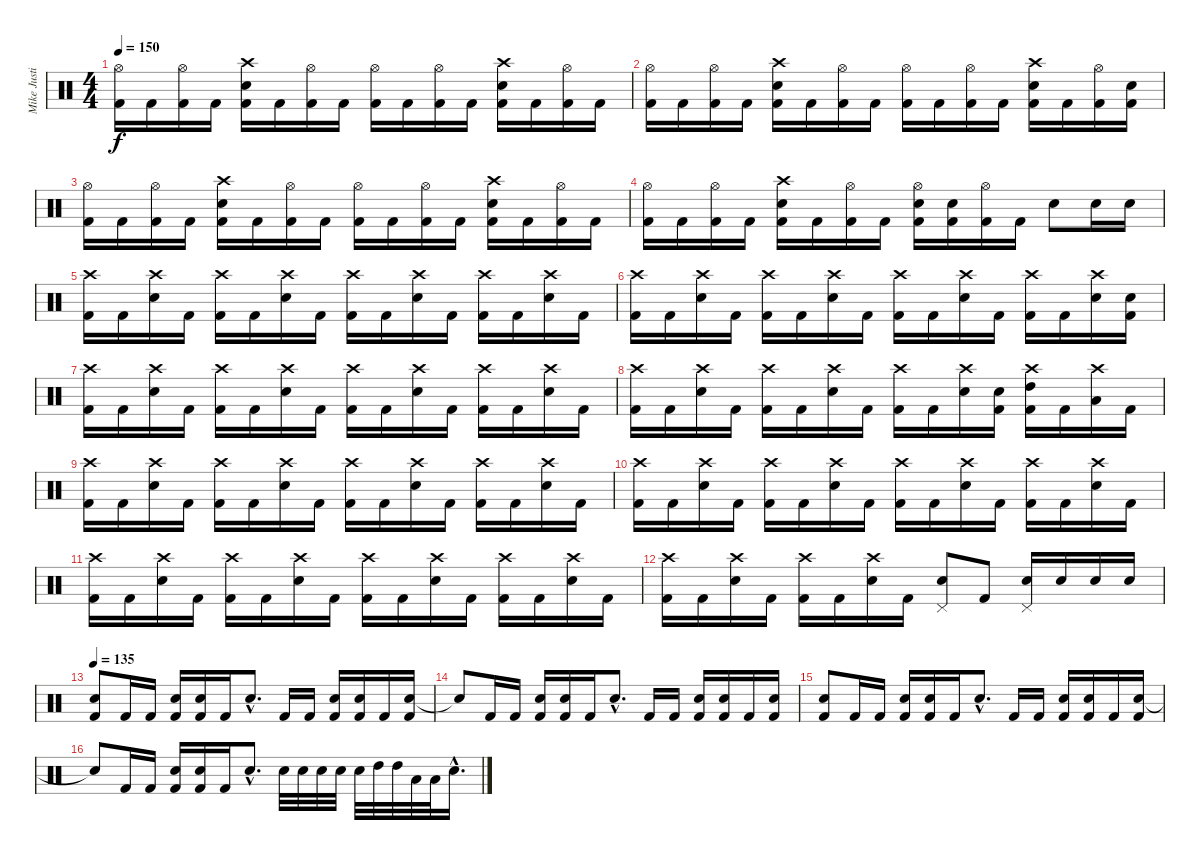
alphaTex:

\track ("Mike Justian" "Mike Justi") {instrument percussion}
\staff {score}
\articulation defaults
\ts (4 4)
\tempo 150
\clef neutral
\ks c
("Hi-Hat (open)" "Kick (hit) 2").16{dy f} "Kick (hit) 2".16 ("Hi-Hat (open)" "Kick (hit) 2").16 "Kick (hit) 2".16 ("Crash high (hit)" "Electric Snare (hit)" "Kick (hit) 2").16 "Kick (hit) 2".16 ("Hi-Hat (open)" "Kick (hit) 2").16 "Kick (hit) 2".16 ("Hi-Hat (open)" "Kick (hit) 2").16 "Kick (hit) 2".16 ("Hi-Hat (open)" "Kick (hit) 2").16 "Kick (hit) 2".16 ("Crash high (hit)" "Electric Snare (hit)" "Kick (hit) 2").16 "Kick (hit) 2".16 ("Hi-Hat (open)" "Kick (hit) 2").16 "Kick (hit) 2".16 |
("Hi-Hat (open)" "Kick (hit) 2").16 "Kick (hit) 2".16 ("Hi-Hat (open)" "Kick (hit) 2").16 "Kick (hit) 2".16 ("Crash high (hit)" "Electric Snare (hit)" "Kick (hit) 2").16 "Kick (hit) 2".16 ("Hi-Hat (open)" "Kick (hit) 2").16 "Kick (hit) 2".16 ("Hi-Hat (open)" "Kick (hit) 2").16 "Kick (hit) 2".16 ("Hi-Hat (open)" "Kick (hit) 2").16 "Kick (hit) 2".16 ("Crash high (hit)" "Electric Snare (hit)" "Kick (hit) 2").16 "Kick (hit) 2".16 ("Hi-Hat (open)" "Kick (hit) 2").16 ("Electric Snare (hit)" "Kick (hit) 2").16 |
("Hi-Hat (open)" "Kick (hit) 2").16 "Kick (hit) 2".16 ("Hi-Hat (open)" "Kick (hit) 2").16 "Kick (hit) 2".16 ("Crash high (hit)" "Electric Snare (hit)" "Kick (hit) 2").16 "Kick (hit) 2".16 ("Hi-Hat (open)" "Kick (hit) 2").16 "Kick (hit) 2".16 ("Hi-Hat (open)" "Kick (hit) 2").16 "Kick (hit) 2".16 ("Hi-Hat (open)" "Kick (hit) 2").16 "Kick (hit) 2".16 ("Crash high (hit)" "Electric Snare (hit)" "Kick (hit) 2").16 "Kick (hit) 2".16 ("Hi-Hat (open)" "Kick (hit) 2").16 "Kick (hit) 2".16 |
("Hi-Hat (open)" "Kick (hit) 2").16 "Kick (hit) 2".16 ("Hi-Hat (open)" "Kick (hit) 2").16 "Kick (hit) 2".16 ("Crash high (hit)" "Electric Snare (hit)" "Kick (hit) 2").16 "Kick (hit) 2".16 ("Hi-Hat (open)" "Kick (hit) 2").16 "Kick (hit) 2".16 ("Hi-Hat (open)" "Electric Snare (hit)" "Kick (hit) 2").16 ("Electric Snare (hit)" "Kick (hit) 2").16 ("Hi-Hat (open)" "Kick (hit) 2").16 "Kick (hit) 2".16 "Electric Snare (hit)".8 "Electric Snare (hit)".16 "Electric Snare (hit)".16 |
("Crash high (hit)" "Kick (hit) 2").16 "Kick (hit) 2".16 ("Crash high (hit)" "Electric Snare (hit)").16 "Kick (hit) 2".16 ("Crash high (hit)" "Kick (hit) 2").16 "Kick (hit) 2".16 ("Crash high (hit)" "Electric Snare (hit)").16 "Kick (hit) 2".16 ("Crash high (hit)" "Kick (hit) 2").16 "Kick (hit) 2".16 ("Crash high (hit)" "Electric Snare (hit)").16 "Kick (hit) 2".16 ("Crash high (hit)" "Kick (hit) 2").16 "Kick (hit) 2".16 ("Crash high (hit)" "Electric Snare (hit)").16 "Kick (hit) 2".16 |
("Crash high (hit)" "Kick (hit) 2").16 "Kick (hit) 2".16 ("Crash high (hit)" "Electric Snare (hit)").16 "Kick (hit) 2".16 ("Crash high (hit)" "Kick (hit) 2").16 "Kick (hit) 2".16 ("Crash high (hit)" "Electric Snare (hit)").16 "Kick (hit) 2".16 ("Crash high (hit)" "Kick (hit) 2").16 "Kick (hit) 2".16 ("Crash high (hit)" "Electric Snare (hit)").16 "Kick (hit) 2".16 ("Crash high (hit)" "Kick (hit) 2").16 "Kick (hit) 2".16 ("Crash high (hit)" "Electric Snare (hit)").16 ("Electric Snare (hit)" "Kick (hit) 2").16 |
("Crash high (hit)" "Kick (hit) 2").16 "Kick (hit) 2".16 ("Crash high (hit)" "Electric Snare (hit)").16 "Kick (hit) 2".16 ("Crash high (hit)" "Kick (hit) 2").16 "Kick (hit) 2".16 ("Crash high (hit)" "Electric Snare (hit)").16 "Kick (hit) 2".16 ("Crash high (hit)" "Kick (hit) 2").16 "Kick (hit) 2".16 ("Crash high (hit)" "Electric Snare (hit)").16 "Kick (hit) 2".16 ("Crash high (hit)" "Kick (hit) 2").16 "Kick (hit) 2".16 ("Crash high (hit)" "Electric Snare (hit)").16 "Kick (hit) 2".16 |
("Crash high (hit)" "Kick (hit) 2").16 "Kick (hit) 2".16 ("Crash high (hit)" "Electric Snare (hit)").16 "Kick (hit) 2".16 ("Crash high (hit)" "Kick (hit) 2").16 "Kick (hit) 2".16 ("Crash high (hit)" "Electric Snare (hit)").16 "Kick (hit) 2".16 ("Crash high (hit)" "Kick (hit) 2").16 "Kick (hit) 2".16 ("Crash high (hit)" "Electric Snare (hit)").16 ("Electric Snare (hit)" "Kick (hit) 2").16 ("Crash high (hit)" "High Tom (hit)" "Kick (hit) 2").16 "Kick (hit) 2".16 ("Crash high (hit)" "Low Tom (hit)").16 "Kick (hit) 2".16 |
("Crash high (hit)" "Kick (hit) 2").16 "Kick (hit) 2".16 ("Crash high (hit)" "Electric Snare (hit)").16 "Kick (hit) 2".16 ("Crash high (hit)" "Kick (hit) 2").16 "Kick (hit) 2".16 ("Crash high (hit)" "Electric Snare (hit)").16 "Kick (hit) 2".16 ("Crash high (hit)" "Kick (hit) 2").16 "Kick (hit) 2".16 ("Crash high (hit)" "Electric Snare (hit)").16 "Kick (hit) 2".16 ("Crash high (hit)" "Kick (hit) 2").16 "Kick (hit) 2".16 ("Crash high (hit)" "Electric Snare (hit)").16 "Kick (hit) 2".16 |
("Crash high (hit)" "Kick (hit) 2").16 "Kick (hit) 2".16 ("Crash high (hit)" "Electric Snare (hit)").16 "Kick (hit) 2".16 ("Crash high (hit)" "Kick (hit) 2").16 "Kick (hit) 2".16 ("Crash high (hit)" "Electric Snare (hit)").16 "Kick (hit) 2".16 ("Crash high (hit)" "Kick (hit) 2").16 "Kick (hit) 2".16 ("Crash high (hit)" "Electric Snare (hit)").16 "Kick (hit) 2".16 ("Crash high (hit)" "Kick (hit) 2").16 "Kick (hit) 2".16 ("Crash high (hit)" "Electric Snare (hit)").16 "Kick (hit) 2".16 |
("Crash high (hit)" "Kick (hit) 2").16 "Kick (hit) 2".16 ("Crash high (hit)" "Electric Snare (hit)").16 "Kick (hit) 2".16 ("Crash high (hit)" "Kick (hit) 2").16 "Kick (hit) 2".16 ("Crash high (hit)" "Electric Snare (hit)").16 "Kick (hit) 2".16 ("Crash high (hit)" "Kick (hit) 2").16 "Kick (hit) 2".16 ("Crash high (hit)" "Electric Snare (hit)").16 "Kick (hit) 2".16 ("Crash high (hit)" "Kick (hit) 2").16 "Kick (hit) 2".16 ("Crash high (hit)" "Electric Snare (hit)").16 "Kick (hit) 2".16 |
("Crash high (hit)" "Kick (hit) 2").16 "Kick (hit) 2".16 ("Crash high (hit)" "Electric Snare (hit)").16 "Kick (hit) 2".16 ("Crash high (hit)" "Kick (hit) 2").16 "Kick (hit) 2".16 ("Crash high (hit)" "Electric Snare (hit)").16 "Kick (hit) 2".16 ("Pedal Hi-Hat (hit)" "Electric Snare (hit)").8 "Kick (hit) 2".8 ("Pedal Hi-Hat (hit)" "Electric Snare (hit)").16 "Electric Snare (hit)".16 "Electric Snare (hit)".16 "Electric Snare (hit)".16 |
\tempo 135
("Electric Snare (hit)" "Kick (hit) 2").8 "Kick (hit) 2".16 "Kick (hit) 2".16 ("Electric Snare (hit)" "Kick (hit) 2").16 ("Electric Snare (hit)" "Kick (hit) 2").16 "Kick (hit) 2".16 "Electric Snare (hit)"{hac}.8{d} "Kick (hit) 2".16 "Kick (hit) 2".16 ("Electric Snare (hit)" "Kick (hit) 2").16 ("Electric Snare (hit)" "Kick (hit) 2").16 "Kick (hit) 2".16 ("Electric Snare (hit)" "Kick (hit) 2").16 |
"Electric Snare (hit)"{t}.8 "Kick (hit) 2".16 "Kick (hit) 2".16 ("Electric Snare (hit)" "Kick (hit) 2").16 ("Electric Snare (hit)" "Kick (hit) 2").16 "Kick (hit) 2".16 "Electric Snare (hit)"{hac}.8{d} "Kick (hit) 2".16 "Kick (hit) 2".16 ("Electric Snare (hit)" "Kick (hit) 2").16 ("Electric Snare (hit)" "Kick (hit) 2").16 "Kick (hit) 2".16 ("Electric Snare (hit)" "Kick (hit) 2").16 |
("Electric Snare (hit)" "Kick (hit) 2").8 "Kick (hit) 2".16 "Kick (hit) 2".16 ("Electric Snare (hit)" "Kick (hit) 2").16 ("Electric Snare (hit)" "Kick (hit) 2").16 "Kick (hit) 2".16 "Electric Snare (hit)"{hac}.8{d} "Kick (hit) 2".16 "Kick (hit) 2".16 ("Electric Snare (hit)" "Kick (hit) 2").16 ("Electric Snare (hit)" "Kick (hit) 2").16 "Kick (hit) 2".16 ("Electric Snare (hit)" "Kick (hit) 2").16 |
"Electric Snare (hit)"{t}.8 "Kick (hit) 2".16 "Kick (hit) 2".16 ("Electric Snare (hit)" "Kick (hit) 2").16 ("Electric Snare (hit)" "Kick (hit) 2").16 "Kick (hit) 2".16 "Electric Snare (hit)"{hac}.8{d} "Electric Snare (hit)".32 "Electric Snare (hit)".32 "Electric Snare (hit)".32 "Electric Snare (hit)".32 "Electric Snare (hit)".32 "High Tom (hit)".32 "High Tom (hit)".32 "Low Tom (hit)".32 "Low Tom (hit)".32 "Electric Snare (hit)"{hac}.16{d}
